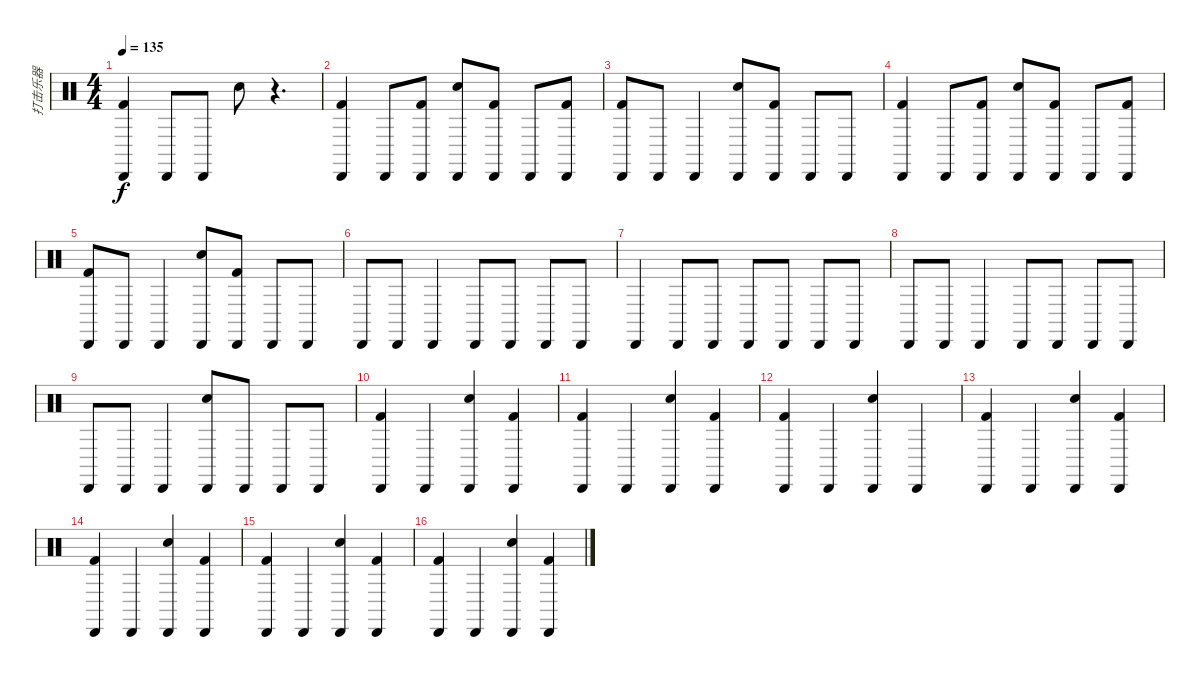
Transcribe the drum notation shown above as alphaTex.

\track ("打击乐器" "打击乐器") {instrument percussion}
\staff {score}
\articulation defaults
\ts (4 4)
\tempo 135
\clef neutral
\ks c
("Cabasa (hit)" "Kick (hit) 2").4{dy f} "Cabasa (hit)".8 "Cabasa (hit)".8 "Snare (hit) 2".8 r.4{d} |
("Cabasa (hit)" "Kick (hit) 2").4 "Cabasa (hit)".8 ("Cabasa (hit)" "Kick (hit) 2").8 ("Snare (hit) 2" "Cabasa (hit)").8 ("Cabasa (hit)" "Kick (hit) 2").8 "Cabasa (hit)".8 ("Cabasa (hit)" "Kick (hit) 2").8 |
("Cabasa (hit)" "Kick (hit) 2").8 "Cabasa (hit)".8 "Cabasa (hit)".4 ("Snare (hit) 2" "Cabasa (hit)").8 ("Cabasa (hit)" "Kick (hit) 2").8 "Cabasa (hit)".8 "Cabasa (hit)".8 |
("Cabasa (hit)" "Kick (hit) 2").4 "Cabasa (hit)".8 ("Cabasa (hit)" "Kick (hit) 2").8 ("Snare (hit) 2" "Cabasa (hit)").8 ("Cabasa (hit)" "Kick (hit) 2").8 "Cabasa (hit)".8 ("Cabasa (hit)" "Kick (hit) 2").8 |
("Cabasa (hit)" "Kick (hit) 2").8 "Cabasa (hit)".8 "Cabasa (hit)".4 ("Snare (hit) 2" "Cabasa (hit)").8 ("Cabasa (hit)" "Kick (hit) 2").8 "Cabasa (hit)".8 "Cabasa (hit)".8 |
"Cabasa (hit)".8 "Cabasa (hit)".8 "Cabasa (hit)".4 "Cabasa (hit)".8 "Cabasa (hit)".8 "Cabasa (hit)".8 "Cabasa (hit)".8 |
"Cabasa (hit)".4 "Cabasa (hit)".8 "Cabasa (hit)".8 "Cabasa (hit)".8 "Cabasa (hit)".8 "Cabasa (hit)".8 "Cabasa (hit)".8 |
"Cabasa (hit)".8 "Cabasa (hit)".8 "Cabasa (hit)".4 "Cabasa (hit)".8 "Cabasa (hit)".8 "Cabasa (hit)".8 "Cabasa (hit)".8 |
"Cabasa (hit)".8 "Cabasa (hit)".8 "Cabasa (hit)".4 ("Snare (hit) 2" "Cabasa (hit)").8 "Cabasa (hit)".8 "Cabasa (hit)".8 "Cabasa (hit)".8 |
("Cabasa (hit)" "Kick (hit) 2").4 "Cabasa (hit)".4 ("Snare (hit) 2" "Cabasa (hit)").4 ("Cabasa (hit)" "Kick (hit) 2").4 |
("Cabasa (hit)" "Kick (hit) 2").4 "Cabasa (hit)".4 ("Snare (hit) 2" "Cabasa (hit)").4 ("Cabasa (hit)" "Kick (hit) 2").4 |
("Cabasa (hit)" "Kick (hit) 2").4 "Cabasa (hit)".4 ("Snare (hit) 2" "Cabasa (hit)").4 "Cabasa (hit)".4 |
("Cabasa (hit)" "Kick (hit) 2").4 "Cabasa (hit)".4 ("Snare (hit) 2" "Cabasa (hit)").4 ("Cabasa (hit)" "Kick (hit) 2").4 |
("Cabasa (hit)" "Kick (hit) 2").4 "Cabasa (hit)".4 ("Snare (hit) 2" "Cabasa (hit)").4 ("Cabasa (hit)" "Kick (hit) 2").4 |
("Cabasa (hit)" "Kick (hit) 2").4 "Cabasa (hit)".4 ("Snare (hit) 2" "Cabasa (hit)").4 ("Cabasa (hit)" "Kick (hit) 2").4 |
("Cabasa (hit)" "Kick (hit) 2").4 "Cabasa (hit)".4 ("Snare (hit) 2" "Cabasa (hit)").4 ("Cabasa (hit)" "Kick (hit) 2").4
